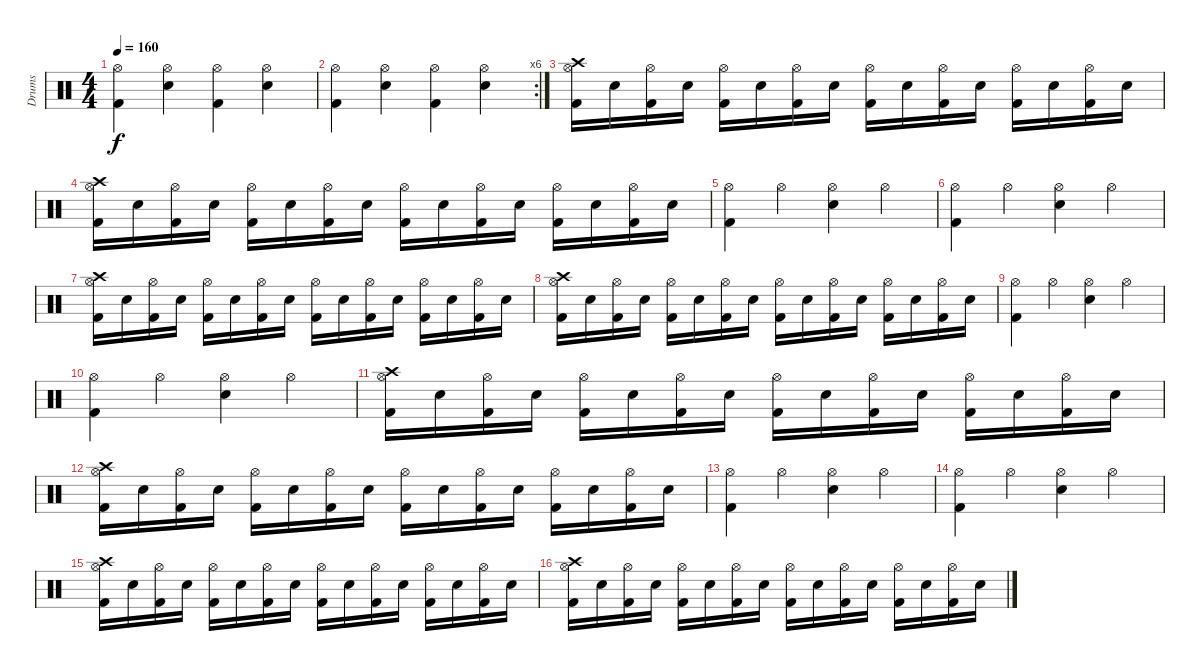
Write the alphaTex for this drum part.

\track ("Drums" "Drums") {instrument percussion}
\staff {score}
\articulation defaults
\ts (4 4)
\tempo 160
\clef neutral
\ks c
("Kick (hit) 2" "Hi-Hat (open)").4{dy f} ("Snare (hit) 2" "Hi-Hat (open)").4 ("Kick (hit) 2" "Hi-Hat (open)").4 ("Snare (hit) 2" "Hi-Hat (open)").4 |
\rc 6
("Kick (hit) 2" "Hi-Hat (open)").4 ("Snare (hit) 2" "Hi-Hat (open)").4 ("Kick (hit) 2" "Hi-Hat (open)").4 ("Snare (hit) 2" "Hi-Hat (open)").4 |
("Kick (hit) 2" "Hi-Hat (open)" "Crash high (hit)").16 "Snare (hit) 2".16 ("Kick (hit) 2" "Hi-Hat (open)").16 "Snare (hit) 2".16 ("Kick (hit) 2" "Hi-Hat (open)").16 "Snare (hit) 2".16 ("Kick (hit) 2" "Hi-Hat (open)").16 "Snare (hit) 2".16 ("Kick (hit) 2" "Hi-Hat (open)").16 "Snare (hit) 2".16 ("Kick (hit) 2" "Hi-Hat (open)").16 "Snare (hit) 2".16 ("Kick (hit) 2" "Hi-Hat (open)").16 "Snare (hit) 2".16 ("Kick (hit) 2" "Hi-Hat (open)").16 "Snare (hit) 2".16 |
("Kick (hit) 2" "Hi-Hat (open)" "Crash high (hit)").16 "Snare (hit) 2".16 ("Kick (hit) 2" "Hi-Hat (open)").16 "Snare (hit) 2".16 ("Kick (hit) 2" "Hi-Hat (open)").16 "Snare (hit) 2".16 ("Kick (hit) 2" "Hi-Hat (open)").16 "Snare (hit) 2".16 ("Kick (hit) 2" "Hi-Hat (open)").16 "Snare (hit) 2".16 ("Kick (hit) 2" "Hi-Hat (open)").16 "Snare (hit) 2".16 ("Kick (hit) 2" "Hi-Hat (open)").16 "Snare (hit) 2".16 ("Kick (hit) 2" "Hi-Hat (open)").16 "Snare (hit) 2".16 |
("Kick (hit) 2" "Hi-Hat (open)").4 "Hi-Hat (open)".4 ("Snare (hit) 2" "Hi-Hat (open)").4 "Hi-Hat (open)".4 |
("Kick (hit) 2" "Hi-Hat (open)").4 "Hi-Hat (open)".4 ("Snare (hit) 2" "Hi-Hat (open)").4 "Hi-Hat (open)".4 |
("Kick (hit) 2" "Hi-Hat (open)" "Crash high (hit)").16 "Snare (hit) 2".16 ("Kick (hit) 2" "Hi-Hat (open)").16 "Snare (hit) 2".16 ("Kick (hit) 2" "Hi-Hat (open)").16 "Snare (hit) 2".16 ("Kick (hit) 2" "Hi-Hat (open)").16 "Snare (hit) 2".16 ("Kick (hit) 2" "Hi-Hat (open)").16 "Snare (hit) 2".16 ("Kick (hit) 2" "Hi-Hat (open)").16 "Snare (hit) 2".16 ("Kick (hit) 2" "Hi-Hat (open)").16 "Snare (hit) 2".16 ("Kick (hit) 2" "Hi-Hat (open)").16 "Snare (hit) 2".16 |
("Kick (hit) 2" "Hi-Hat (open)" "Crash high (hit)").16 "Snare (hit) 2".16 ("Kick (hit) 2" "Hi-Hat (open)").16 "Snare (hit) 2".16 ("Kick (hit) 2" "Hi-Hat (open)").16 "Snare (hit) 2".16 ("Kick (hit) 2" "Hi-Hat (open)").16 "Snare (hit) 2".16 ("Kick (hit) 2" "Hi-Hat (open)").16 "Snare (hit) 2".16 ("Kick (hit) 2" "Hi-Hat (open)").16 "Snare (hit) 2".16 ("Kick (hit) 2" "Hi-Hat (open)").16 "Snare (hit) 2".16 ("Kick (hit) 2" "Hi-Hat (open)").16 "Snare (hit) 2".16 |
("Kick (hit) 2" "Hi-Hat (open)").4 "Hi-Hat (open)".4 ("Snare (hit) 2" "Hi-Hat (open)").4 "Hi-Hat (open)".4 |
("Kick (hit) 2" "Hi-Hat (open)").4 "Hi-Hat (open)".4 ("Snare (hit) 2" "Hi-Hat (open)").4 "Hi-Hat (open)".4 |
("Kick (hit) 2" "Hi-Hat (open)" "Crash high (hit)").16 "Snare (hit) 2".16 ("Kick (hit) 2" "Hi-Hat (open)").16 "Snare (hit) 2".16 ("Kick (hit) 2" "Hi-Hat (open)").16 "Snare (hit) 2".16 ("Kick (hit) 2" "Hi-Hat (open)").16 "Snare (hit) 2".16 ("Kick (hit) 2" "Hi-Hat (open)").16 "Snare (hit) 2".16 ("Kick (hit) 2" "Hi-Hat (open)").16 "Snare (hit) 2".16 ("Kick (hit) 2" "Hi-Hat (open)").16 "Snare (hit) 2".16 ("Kick (hit) 2" "Hi-Hat (open)").16 "Snare (hit) 2".16 |
("Kick (hit) 2" "Hi-Hat (open)" "Crash high (hit)").16 "Snare (hit) 2".16 ("Kick (hit) 2" "Hi-Hat (open)").16 "Snare (hit) 2".16 ("Kick (hit) 2" "Hi-Hat (open)").16 "Snare (hit) 2".16 ("Kick (hit) 2" "Hi-Hat (open)").16 "Snare (hit) 2".16 ("Kick (hit) 2" "Hi-Hat (open)").16 "Snare (hit) 2".16 ("Kick (hit) 2" "Hi-Hat (open)").16 "Snare (hit) 2".16 ("Kick (hit) 2" "Hi-Hat (open)").16 "Snare (hit) 2".16 ("Kick (hit) 2" "Hi-Hat (open)").16 "Snare (hit) 2".16 |
("Kick (hit) 2" "Hi-Hat (open)").4 "Hi-Hat (open)".4 ("Snare (hit) 2" "Hi-Hat (open)").4 "Hi-Hat (open)".4 |
("Kick (hit) 2" "Hi-Hat (open)").4 "Hi-Hat (open)".4 ("Snare (hit) 2" "Hi-Hat (open)").4 "Hi-Hat (open)".4 |
("Kick (hit) 2" "Hi-Hat (open)" "Crash high (hit)").16 "Snare (hit) 2".16 ("Kick (hit) 2" "Hi-Hat (open)").16 "Snare (hit) 2".16 ("Kick (hit) 2" "Hi-Hat (open)").16 "Snare (hit) 2".16 ("Kick (hit) 2" "Hi-Hat (open)").16 "Snare (hit) 2".16 ("Kick (hit) 2" "Hi-Hat (open)").16 "Snare (hit) 2".16 ("Kick (hit) 2" "Hi-Hat (open)").16 "Snare (hit) 2".16 ("Kick (hit) 2" "Hi-Hat (open)").16 "Snare (hit) 2".16 ("Kick (hit) 2" "Hi-Hat (open)").16 "Snare (hit) 2".16 |
("Kick (hit) 2" "Hi-Hat (open)" "Crash high (hit)").16 "Snare (hit) 2".16 ("Kick (hit) 2" "Hi-Hat (open)").16 "Snare (hit) 2".16 ("Kick (hit) 2" "Hi-Hat (open)").16 "Snare (hit) 2".16 ("Kick (hit) 2" "Hi-Hat (open)").16 "Snare (hit) 2".16 ("Kick (hit) 2" "Hi-Hat (open)").16 "Snare (hit) 2".16 ("Kick (hit) 2" "Hi-Hat (open)").16 "Snare (hit) 2".16 ("Kick (hit) 2" "Hi-Hat (open)").16 "Snare (hit) 2".16 ("Kick (hit) 2" "Hi-Hat (open)").16 "Snare (hit) 2".16
